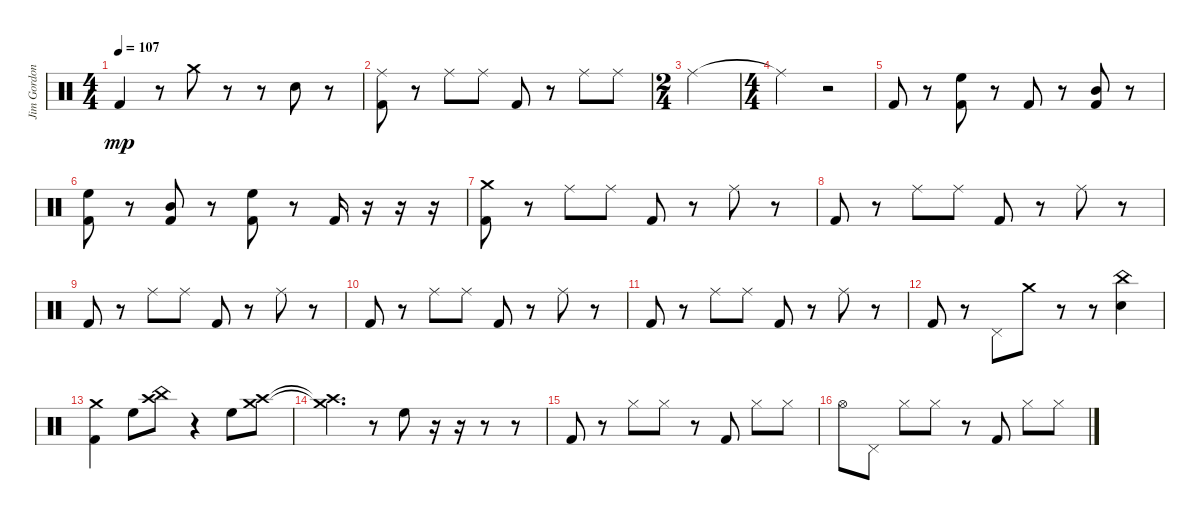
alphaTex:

\track ("Jim Gordon (Drums)" "Jim Gordon") {instrument percussion}
\staff {score}
\articulation defaults
\ts (4 4)
\tempo 107
\clef neutral
\ks c "Kick (hit) 2".4{dy mp}
r.8 "Crash medium (hit)".8 r.8 r.8 "Snare (hit) 2".8 r.8 |
("Ride (middle)" "Kick (hit) 2").8 r.8 "Ride (middle)".8 "Ride (middle)".8 "Kick (hit) 2".8 r.8 "Ride (middle)".8 "Ride (middle)".8 |
\ts (2 4)
"Ride (middle)".2 |
\ts (4 4)
"Ride (middle)"{t}.2 r.2 |
"Kick (hit) 2".8 r.8 ("High Floor Tom (hit)" "Kick (hit) 2").8 r.8 "Kick (hit) 2".8 r.8 ("Mid Tom (hit)" "Kick (hit) 2").8 r.8 |
("High Floor Tom (hit)" "Kick (hit) 2").8 r.8 ("Mid Tom (hit)" "Kick (hit) 2").8 r.8 ("High Floor Tom (hit)" "Kick (hit) 2").8 r.8 "Kick (hit) 2".16 r.16 r.16 r.16 |
("Crash medium (hit)" "Kick (hit) 2").8 r.8 "Ride (middle)".8 "Ride (middle)".8 "Kick (hit) 2".8 r.8 "Ride (middle)".8 r.8 |
"Kick (hit) 2".8 r.8 "Ride (middle)".8 "Ride (middle)".8 "Kick (hit) 2".8 r.8 "Ride (middle)".8 r.8 |
"Kick (hit) 2".8 r.8 "Ride (middle)".8 "Ride (middle)".8 "Kick (hit) 2".8 r.8 "Ride (middle)".8 r.8 |
"Kick (hit) 2".8 r.8 "Ride (middle)".8 "Ride (middle)".8 "Kick (hit) 2".8 r.8 "Ride (middle)".8 r.8 |
"Kick (hit) 2".8 r.8 "Ride (middle)".8 "Ride (middle)".8 "Kick (hit) 2".8 r.8 "Ride (middle)".8 r.8 |
"Kick (hit) 2".8 r.8 "Pedal Hi-Hat (hit)".8 "Crash medium (hit)".8 r.8 r.8 ("Snare (hit) 2" "China (hit)").4 |
("Crash medium (hit)" "Kick (hit) 2").4 "High Floor Tom (hit)".8 ("Crash high (hit)" "China (hit)").8 r.4 "High Floor Tom (hit)".8 ("Crash high (hit)" "Crash medium (hit)").8 |
("Crash high (hit)"{t} "Crash medium (hit)"{t}).4{d} r.8 "High Floor Tom (hit)".8 r.16 r.16 r.8 r.8 |
"Kick (hit) 2".8 r.8 "Hi-Hat (closed)".8 "Hi-Hat (closed)".8 r.8 "Kick (hit) 2".8 "Hi-Hat (closed)".8 "Hi-Hat (closed)".8 |
"Hi-Hat (open)".8 "Pedal Hi-Hat (hit)".8 "Hi-Hat (closed)".8 "Hi-Hat (closed)".8 r.8 "Kick (hit) 2".8 "Hi-Hat (closed)".8 "Hi-Hat (closed)".8
